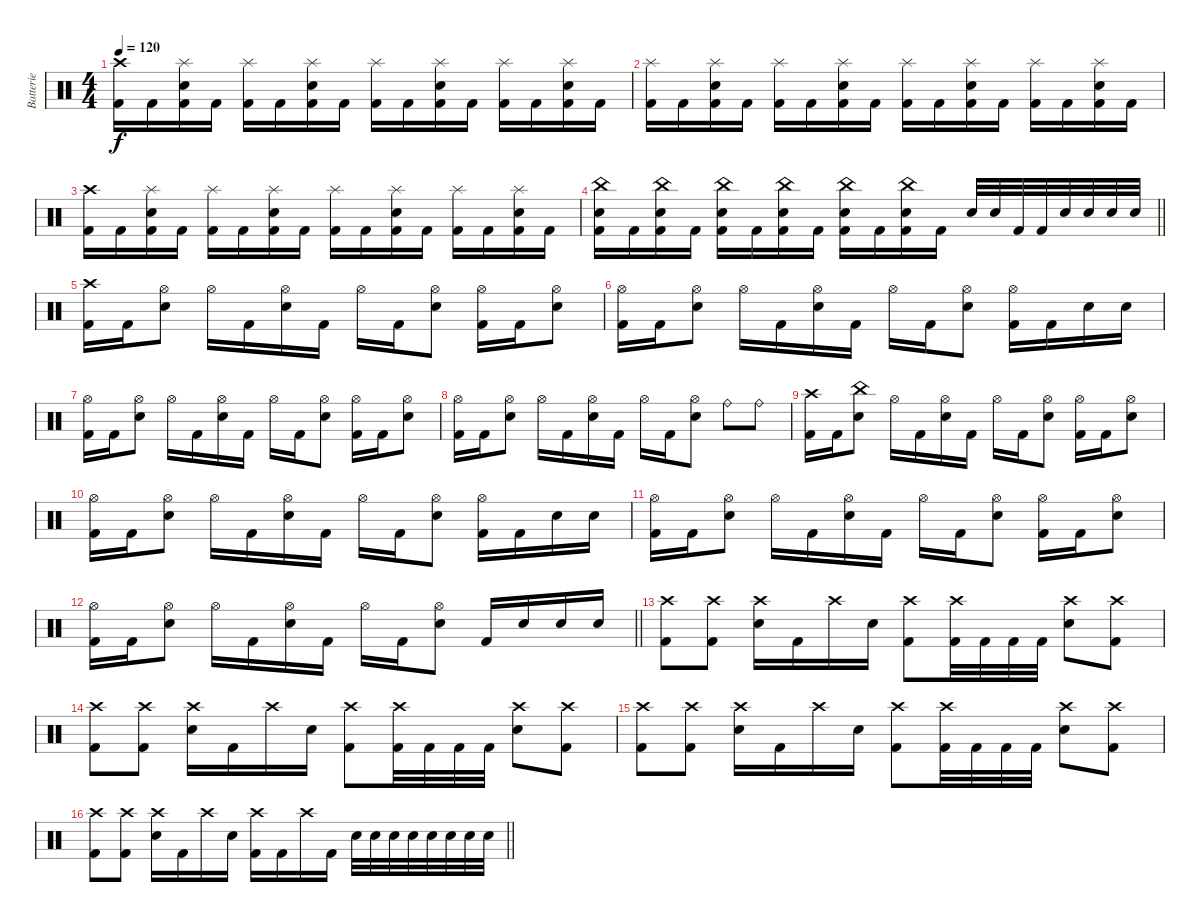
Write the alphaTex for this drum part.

\track ("Batterie" "Batterie") {instrument percussion}
\staff {score}
\articulation defaults
\ts (4 4)
\tempo 120
\clef neutral
\ks c
("Crash high (hit)" "Kick (hit) 2").16{dy f} "Kick (hit) 2".16 ("Splash (hit)" "Electric Snare (hit)" "Kick (hit) 2").16 "Kick (hit) 2".16 ("Splash (hit)" "Kick (hit) 2").16 "Kick (hit) 2".16 ("Splash (hit)" "Electric Snare (hit)" "Kick (hit) 2").16 "Kick (hit) 2".16 ("Splash (hit)" "Kick (hit) 2").16 "Kick (hit) 2".16 ("Splash (hit)" "Electric Snare (hit)" "Kick (hit) 2").16 "Kick (hit) 2".16 ("Splash (hit)" "Kick (hit) 2").16 "Kick (hit) 2".16 ("Splash (hit)" "Electric Snare (hit)" "Kick (hit) 2").16 "Kick (hit) 2".16 |
("Splash (hit)" "Kick (hit) 2").16 "Kick (hit) 2".16 ("Splash (hit)" "Electric Snare (hit)" "Kick (hit) 2").16 "Kick (hit) 2".16 ("Splash (hit)" "Kick (hit) 2").16 "Kick (hit) 2".16 ("Splash (hit)" "Electric Snare (hit)" "Kick (hit) 2").16 "Kick (hit) 2".16 ("Splash (hit)" "Kick (hit) 2").16 "Kick (hit) 2".16 ("Splash (hit)" "Electric Snare (hit)" "Kick (hit) 2").16 "Kick (hit) 2".16 ("Splash (hit)" "Kick (hit) 2").16 "Kick (hit) 2".16 ("Splash (hit)" "Electric Snare (hit)" "Kick (hit) 2").16 "Kick (hit) 2".16 |
("Crash high (hit)" "Kick (hit) 2").16 "Kick (hit) 2".16 ("Splash (hit)" "Electric Snare (hit)" "Kick (hit) 2").16 "Kick (hit) 2".16 ("Splash (hit)" "Kick (hit) 2").16 "Kick (hit) 2".16 ("Splash (hit)" "Electric Snare (hit)" "Kick (hit) 2").16 "Kick (hit) 2".16 ("Splash (hit)" "Kick (hit) 2").16 "Kick (hit) 2".16 ("Splash (hit)" "Electric Snare (hit)" "Kick (hit) 2").16 "Kick (hit) 2".16 ("Splash (hit)" "Kick (hit) 2").16 "Kick (hit) 2".16 ("Splash (hit)" "Electric Snare (hit)" "Kick (hit) 2").16 "Kick (hit) 2".16 |
\barLineRight lightlight
("China (hit)" "Electric Snare (hit)" "Kick (hit) 2").16 "Kick (hit) 2".16 ("China (hit)" "Electric Snare (hit)" "Kick (hit) 2").16 "Kick (hit) 2".16 ("China (hit)" "Electric Snare (hit)" "Kick (hit) 2").16 "Kick (hit) 2".16 ("China (hit)" "Electric Snare (hit)" "Kick (hit) 2").16 "Kick (hit) 2".16 ("China (hit)" "Electric Snare (hit)" "Kick (hit) 2").16 "Kick (hit) 2".16 ("China (hit)" "Electric Snare (hit)" "Kick (hit) 2").16 "Kick (hit) 2".16 "Electric Snare (hit)".32 "Electric Snare (hit)".32 "Kick (hit) 2".32 "Kick (hit) 2".32 "Electric Snare (hit)".32 "Electric Snare (hit)".32 "Electric Snare (hit)".32 "Electric Snare (hit)".32 |
("Crash high (hit)" "Kick (hit) 2").16 "Kick (hit) 2".16 ("Hi-Hat (open)" "Electric Snare (hit)").8 "Hi-Hat (open)".16 "Kick (hit) 2".16 ("Hi-Hat (open)" "Electric Snare (hit)").16 "Kick (hit) 2".16 "Hi-Hat (open)".16 "Kick (hit) 2".16 ("Hi-Hat (open)" "Electric Snare (hit)").8 ("Hi-Hat (open)" "Kick (hit) 2").16 "Kick (hit) 2".16 ("Hi-Hat (open)" "Electric Snare (hit)").8 |
("Hi-Hat (open)" "Kick (hit) 2").16 "Kick (hit) 2".16 ("Hi-Hat (open)" "Electric Snare (hit)").8 "Hi-Hat (open)".16 "Kick (hit) 2".16 ("Hi-Hat (open)" "Electric Snare (hit)").16 "Kick (hit) 2".16 "Hi-Hat (open)".16 "Kick (hit) 2".16 ("Hi-Hat (open)" "Electric Snare (hit)").8 ("Hi-Hat (open)" "Kick (hit) 2").16 "Kick (hit) 2".16 "Electric Snare (hit)".16 "Electric Snare (hit)".16 |
("Hi-Hat (open)" "Kick (hit) 2").16 "Kick (hit) 2".16 ("Hi-Hat (open)" "Electric Snare (hit)").8 "Hi-Hat (open)".16 "Kick (hit) 2".16 ("Hi-Hat (open)" "Electric Snare (hit)").16 "Kick (hit) 2".16 "Hi-Hat (open)".16 "Kick (hit) 2".16 ("Hi-Hat (open)" "Electric Snare (hit)").8 ("Hi-Hat (open)" "Kick (hit) 2").16 "Kick (hit) 2".16 ("Hi-Hat (open)" "Electric Snare (hit)").8 |
("Hi-Hat (open)" "Kick (hit) 2").16 "Kick (hit) 2".16 ("Hi-Hat (open)" "Electric Snare (hit)").8 "Hi-Hat (open)".16 "Kick (hit) 2".16 ("Hi-Hat (open)" "Electric Snare (hit)").16 "Kick (hit) 2".16 "Hi-Hat (open)".16 "Kick (hit) 2".16 ("Hi-Hat (open)" "Electric Snare (hit)").8 "Ride (bell)".8 "Ride (bell)".8 |
("Crash high (hit)" "Kick (hit) 2").16 "Kick (hit) 2".16 ("China (hit)" "Electric Snare (hit)").8 "Hi-Hat (open)".16 "Kick (hit) 2".16 ("Hi-Hat (open)" "Electric Snare (hit)").16 "Kick (hit) 2".16 "Hi-Hat (open)".16 "Kick (hit) 2".16 ("Hi-Hat (open)" "Electric Snare (hit)").8 ("Hi-Hat (open)" "Kick (hit) 2").16 "Kick (hit) 2".16 ("Hi-Hat (open)" "Electric Snare (hit)").8 |
("Hi-Hat (open)" "Kick (hit) 2").16 "Kick (hit) 2".16 ("Hi-Hat (open)" "Electric Snare (hit)").8 "Hi-Hat (open)".16 "Kick (hit) 2".16 ("Hi-Hat (open)" "Electric Snare (hit)").16 "Kick (hit) 2".16 "Hi-Hat (open)".16 "Kick (hit) 2".16 ("Hi-Hat (open)" "Electric Snare (hit)").8 ("Hi-Hat (open)" "Kick (hit) 2").16 "Kick (hit) 2".16 "Electric Snare (hit)".16 "Electric Snare (hit)".16 |
("Hi-Hat (open)" "Kick (hit) 2").16 "Kick (hit) 2".16 ("Hi-Hat (open)" "Electric Snare (hit)").8 "Hi-Hat (open)".16 "Kick (hit) 2".16 ("Hi-Hat (open)" "Electric Snare (hit)").16 "Kick (hit) 2".16 "Hi-Hat (open)".16 "Kick (hit) 2".16 ("Hi-Hat (open)" "Electric Snare (hit)").8 ("Hi-Hat (open)" "Kick (hit) 2").16 "Kick (hit) 2".16 ("Hi-Hat (open)" "Electric Snare (hit)").8 |
\barLineRight lightlight
("Hi-Hat (open)" "Kick (hit) 2").16 "Kick (hit) 2".16 ("Hi-Hat (open)" "Electric Snare (hit)").8 "Hi-Hat (open)".16 "Kick (hit) 2".16 ("Hi-Hat (open)" "Electric Snare (hit)").16 "Kick (hit) 2".16 "Hi-Hat (open)".16 "Kick (hit) 2".16 ("Hi-Hat (open)" "Electric Snare (hit)").8 "Kick (hit) 2".16 "Electric Snare (hit)".16 "Electric Snare (hit)".16 "Electric Snare (hit)".16 |
("Crash high (hit)" "Kick (hit) 2").8 ("Crash high (hit)" "Kick (hit) 2").8 ("Crash high (hit)" "Electric Snare (hit)").16 "Kick (hit) 2".16 "Crash high (hit)".16 "Electric Snare (hit)".16 ("Crash high (hit)" "Kick (hit) 2").8 ("Crash high (hit)" "Kick (hit) 2").32 "Kick (hit) 2".32 "Kick (hit) 2".32 "Kick (hit) 2".32 ("Crash high (hit)" "Electric Snare (hit)").8 ("Crash high (hit)" "Kick (hit) 2").8 |
("Crash high (hit)" "Kick (hit) 2").8 ("Crash high (hit)" "Kick (hit) 2").8 ("Crash high (hit)" "Electric Snare (hit)").16 "Kick (hit) 2".16 "Crash high (hit)".16 "Electric Snare (hit)".16 ("Crash high (hit)" "Kick (hit) 2").8 ("Crash high (hit)" "Kick (hit) 2").32 "Kick (hit) 2".32 "Kick (hit) 2".32 "Kick (hit) 2".32 ("Crash high (hit)" "Electric Snare (hit)").8 ("Crash high (hit)" "Kick (hit) 2").8 |
("Crash high (hit)" "Kick (hit) 2").8 ("Crash high (hit)" "Kick (hit) 2").8 ("Crash high (hit)" "Electric Snare (hit)").16 "Kick (hit) 2".16 "Crash high (hit)".16 "Electric Snare (hit)".16 ("Crash high (hit)" "Kick (hit) 2").8 ("Crash high (hit)" "Kick (hit) 2").32 "Kick (hit) 2".32 "Kick (hit) 2".32 "Kick (hit) 2".32 ("Crash high (hit)" "Electric Snare (hit)").8 ("Crash high (hit)" "Kick (hit) 2").8 |
\barLineRight lightlight
("Crash high (hit)" "Kick (hit) 2").8 ("Crash high (hit)" "Kick (hit) 2").8 ("Crash high (hit)" "Electric Snare (hit)").16 "Kick (hit) 2".16 "Crash high (hit)".16 "Electric Snare (hit)".16 ("Crash high (hit)" "Kick (hit) 2").16 "Kick (hit) 2".16 "Crash high (hit)".16 "Kick (hit) 2".16 "Electric Snare (hit)".32 "Electric Snare (hit)".32 "Electric Snare (hit)".32 "Electric Snare (hit)".32 "Electric Snare (hit)".32 "Electric Snare (hit)".32 "Electric Snare (hit)".32 "Electric Snare (hit)".32
